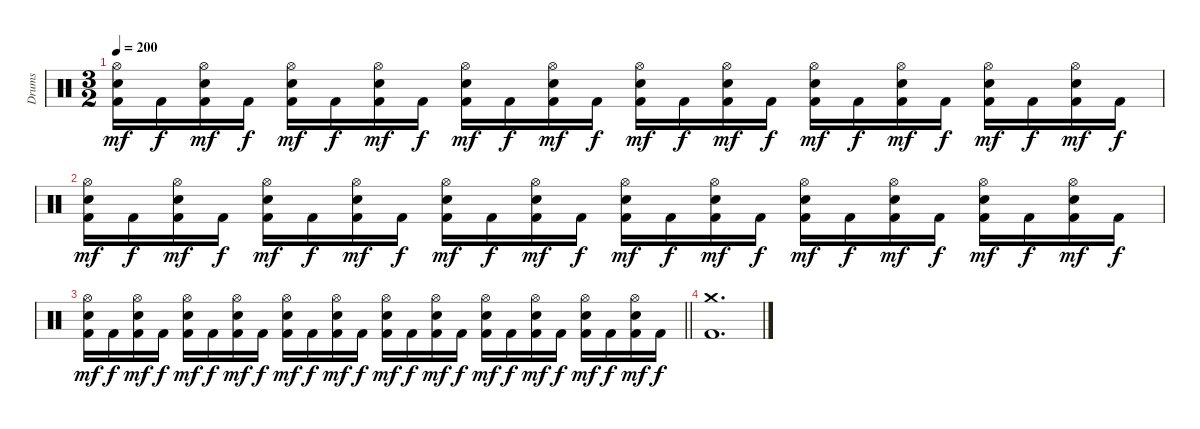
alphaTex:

\track ("Drums" "Drums") {instrument percussion}
\staff {score}
\articulation defaults
\ts (3 2)
\tempo 200
\clef neutral
\ks c
("Hi-Hat (open)" "Electric Snare (hit)" "Kick (hit) 2").16{dy mf} "Kick (hit) 2".16{dy f} ("Hi-Hat (open)" "Electric Snare (hit)" "Kick (hit) 2").16{dy mf} "Kick (hit) 2".16{dy f} ("Hi-Hat (open)" "Electric Snare (hit)" "Kick (hit) 2").16{dy mf} "Kick (hit) 2".16{dy f} ("Hi-Hat (open)" "Electric Snare (hit)" "Kick (hit) 2").16{dy mf} "Kick (hit) 2".16{dy f} ("Hi-Hat (open)" "Electric Snare (hit)" "Kick (hit) 2").16{dy mf} "Kick (hit) 2".16{dy f} ("Hi-Hat (open)" "Electric Snare (hit)" "Kick (hit) 2").16{dy mf} "Kick (hit) 2".16{dy f} ("Hi-Hat (open)" "Electric Snare (hit)" "Kick (hit) 2").16{dy mf} "Kick (hit) 2".16{dy f} ("Hi-Hat (open)" "Electric Snare (hit)" "Kick (hit) 2").16{dy mf} "Kick (hit) 2".16{dy f} ("Hi-Hat (open)" "Electric Snare (hit)" "Kick (hit) 2").16{dy mf} "Kick (hit) 2".16{dy f} ("Hi-Hat (open)" "Electric Snare (hit)" "Kick (hit) 2").16{dy mf} "Kick (hit) 2".16{dy f} ("Hi-Hat (open)" "Electric Snare (hit)" "Kick (hit) 2").16{dy mf} "Kick (hit) 2".16{dy f} ("Hi-Hat (open)" "Electric Snare (hit)" "Kick (hit) 2").16{dy mf} "Kick (hit) 2".16{dy f} |
("Hi-Hat (open)" "Electric Snare (hit)" "Kick (hit) 2").16{dy mf} "Kick (hit) 2".16{dy f} ("Hi-Hat (open)" "Electric Snare (hit)" "Kick (hit) 2").16{dy mf} "Kick (hit) 2".16{dy f} ("Hi-Hat (open)" "Electric Snare (hit)" "Kick (hit) 2").16{dy mf} "Kick (hit) 2".16{dy f} ("Hi-Hat (open)" "Electric Snare (hit)" "Kick (hit) 2").16{dy mf} "Kick (hit) 2".16{dy f} ("Hi-Hat (open)" "Electric Snare (hit)" "Kick (hit) 2").16{dy mf} "Kick (hit) 2".16{dy f} ("Hi-Hat (open)" "Electric Snare (hit)" "Kick (hit) 2").16{dy mf} "Kick (hit) 2".16{dy f} ("Hi-Hat (open)" "Electric Snare (hit)" "Kick (hit) 2").16{dy mf} "Kick (hit) 2".16{dy f} ("Hi-Hat (open)" "Electric Snare (hit)" "Kick (hit) 2").16{dy mf} "Kick (hit) 2".16{dy f} ("Hi-Hat (open)" "Electric Snare (hit)" "Kick (hit) 2").16{dy mf} "Kick (hit) 2".16{dy f} ("Hi-Hat (open)" "Electric Snare (hit)" "Kick (hit) 2").16{dy mf} "Kick (hit) 2".16{dy f} ("Hi-Hat (open)" "Electric Snare (hit)" "Kick (hit) 2").16{dy mf} "Kick (hit) 2".16{dy f} ("Hi-Hat (open)" "Electric Snare (hit)" "Kick (hit) 2").16{dy mf} "Kick (hit) 2".16{dy f} |
\barLineRight lightlight
("Hi-Hat (open)" "Electric Snare (hit)" "Kick (hit) 2").16{dy mf} "Kick (hit) 2".16{dy f} ("Hi-Hat (open)" "Electric Snare (hit)" "Kick (hit) 2").16{dy mf} "Kick (hit) 2".16{dy f} ("Hi-Hat (open)" "Electric Snare (hit)" "Kick (hit) 2").16{dy mf} "Kick (hit) 2".16{dy f} ("Hi-Hat (open)" "Electric Snare (hit)" "Kick (hit) 2").16{dy mf} "Kick (hit) 2".16{dy f} ("Hi-Hat (open)" "Electric Snare (hit)" "Kick (hit) 2").16{dy mf} "Kick (hit) 2".16{dy f} ("Hi-Hat (open)" "Electric Snare (hit)" "Kick (hit) 2").16{dy mf} "Kick (hit) 2".16{dy f} ("Hi-Hat (open)" "Electric Snare (hit)" "Kick (hit) 2").16{dy mf} "Kick (hit) 2".16{dy f} ("Hi-Hat (open)" "Electric Snare (hit)" "Kick (hit) 2").16{dy mf} "Kick (hit) 2".16{dy f} ("Hi-Hat (open)" "Electric Snare (hit)" "Kick (hit) 2").16{dy mf} "Kick (hit) 2".16{dy f} ("Hi-Hat (open)" "Electric Snare (hit)" "Kick (hit) 2").16{dy mf} "Kick (hit) 2".16{dy f} ("Hi-Hat (open)" "Electric Snare (hit)" "Kick (hit) 2").16{dy mf} "Kick (hit) 2".16{dy f} ("Hi-Hat (open)" "Electric Snare (hit)" "Kick (hit) 2").16{dy mf} "Kick (hit) 2".16{dy f} |
("Crash medium (hit)" "Kick (hit) 2").1{d}
